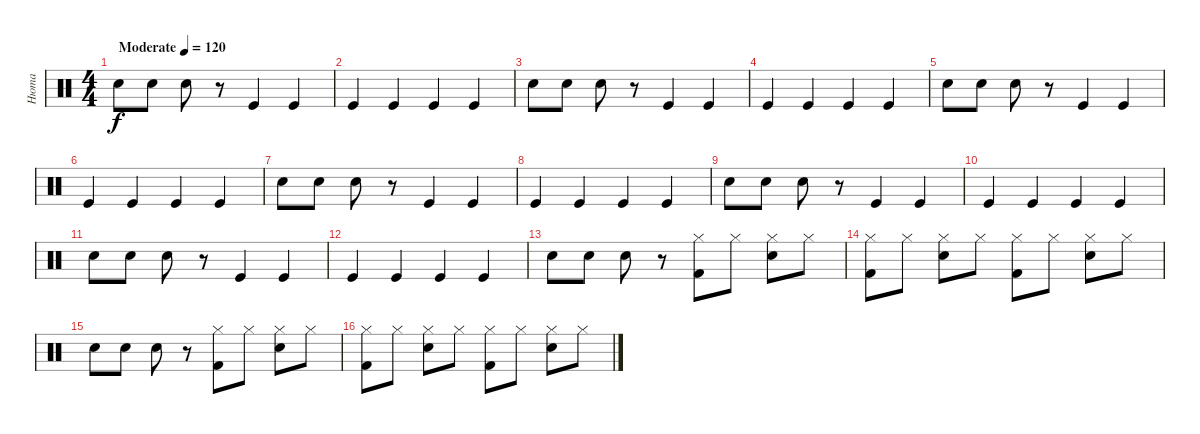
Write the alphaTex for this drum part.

\track ("Нюта" "Нюта") {instrument percussion}
\staff {score}
\articulation defaults
\ts (4 4)
\tempo (120 "Moderate")
\clef neutral
\ks c "Electric Snare (hit)".8{dy f} "Electric Snare (hit)".8 "Electric Snare (hit)".8
r.8 "Kick (hit)".4 "Kick (hit)".4 |
"Kick (hit)".4 "Kick (hit)".4 "Kick (hit)".4 "Kick (hit)".4 |
"Electric Snare (hit)".8 "Electric Snare (hit)".8 "Electric Snare (hit)".8 r.8 "Kick (hit)".4 "Kick (hit)".4 |
"Kick (hit)".4 "Kick (hit)".4 "Kick (hit)".4 "Kick (hit)".4 |
"Electric Snare (hit)".8 "Electric Snare (hit)".8 "Electric Snare (hit)".8 r.8 "Kick (hit)".4 "Kick (hit)".4 |
"Kick (hit)".4 "Kick (hit)".4 "Kick (hit)".4 "Kick (hit)".4 |
"Electric Snare (hit)".8 "Electric Snare (hit)".8 "Electric Snare (hit)".8 r.8 "Kick (hit)".4 "Kick (hit)".4 |
"Kick (hit)".4 "Kick (hit)".4 "Kick (hit)".4 "Kick (hit)".4 |
"Electric Snare (hit)".8 "Electric Snare (hit)".8 "Electric Snare (hit)".8 r.8 "Kick (hit)".4 "Kick (hit)".4 |
"Kick (hit)".4 "Kick (hit)".4 "Kick (hit)".4 "Kick (hit)".4 |
"Electric Snare (hit)".8 "Electric Snare (hit)".8 "Electric Snare (hit)".8 r.8 "Kick (hit)".4 "Kick (hit)".4 |
"Kick (hit)".4 "Kick (hit)".4 "Kick (hit)".4 "Kick (hit)".4 |
"Electric Snare (hit)".8 "Electric Snare (hit)".8 "Electric Snare (hit)".8 r.8 ("Hi-Hat (closed)" "Kick (hit) 2").8 "Hi-Hat (closed)".8 ("Hi-Hat (closed)" "Electric Snare (hit)").8 "Hi-Hat (closed)".8 |
("Hi-Hat (closed)" "Kick (hit) 2").8 "Hi-Hat (closed)".8 ("Hi-Hat (closed)" "Electric Snare (hit)").8 "Hi-Hat (closed)".8 ("Hi-Hat (closed)" "Kick (hit) 2").8 "Hi-Hat (closed)".8 ("Hi-Hat (closed)" "Electric Snare (hit)").8 "Hi-Hat (closed)".8 |
"Electric Snare (hit)".8 "Electric Snare (hit)".8 "Electric Snare (hit)".8 r.8 ("Hi-Hat (closed)" "Kick (hit) 2").8 "Hi-Hat (closed)".8 ("Hi-Hat (closed)" "Electric Snare (hit)").8 "Hi-Hat (closed)".8 |
("Hi-Hat (closed)" "Kick (hit) 2").8 "Hi-Hat (closed)".8 ("Hi-Hat (closed)" "Electric Snare (hit)").8 "Hi-Hat (closed)".8 ("Hi-Hat (closed)" "Kick (hit) 2").8 "Hi-Hat (closed)".8 ("Hi-Hat (closed)" "Electric Snare (hit)").8 "Hi-Hat (closed)".8
